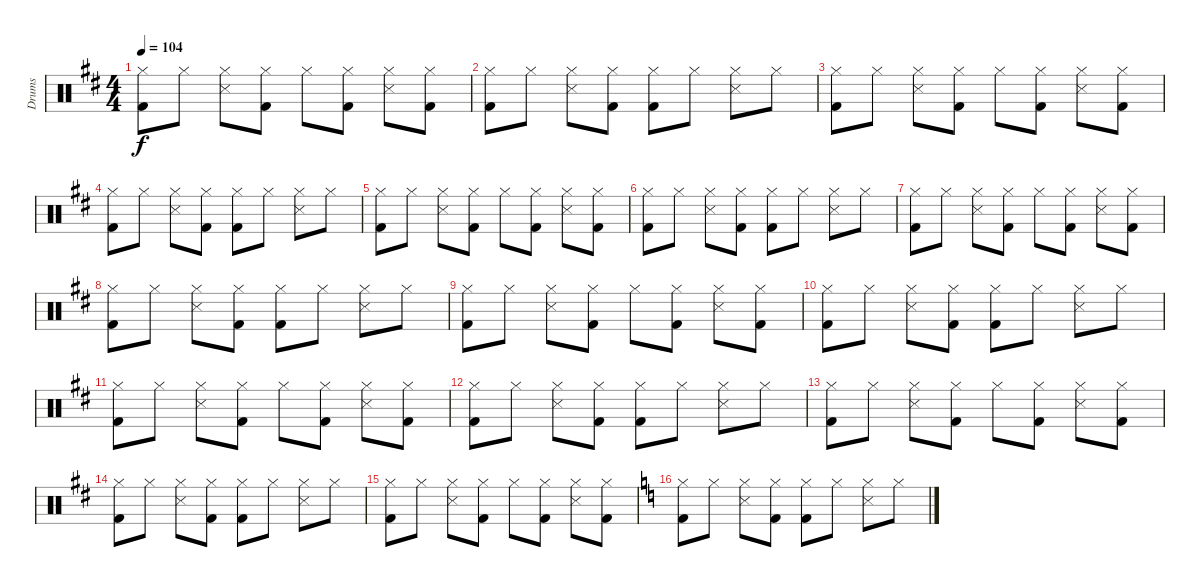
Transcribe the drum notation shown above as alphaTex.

\track ("Drums" "Drums") {instrument percussion}
\staff {score}
\articulation defaults
\ts (4 4)
\tempo 104
\clef neutral
\ks d
("Hi-Hat (closed)" "Kick (hit) 2").8{dy f} "Hi-Hat (closed)".8 ("Hi-Hat (closed)" "Snare (side stick) 3").8 ("Hi-Hat (closed)" "Kick (hit) 2").8 "Hi-Hat (closed)".8 ("Hi-Hat (closed)" "Kick (hit) 2").8 ("Hi-Hat (closed)" "Snare (side stick) 3").8 ("Hi-Hat (closed)" "Kick (hit) 2").8 |
("Hi-Hat (closed)" "Kick (hit) 2").8 "Hi-Hat (closed)".8 ("Hi-Hat (closed)" "Snare (side stick) 3").8 ("Hi-Hat (closed)" "Kick (hit) 2").8 ("Hi-Hat (closed)" "Kick (hit) 2").8 "Hi-Hat (closed)".8 ("Hi-Hat (closed)" "Snare (side stick) 3").8 "Hi-Hat (closed)".8 |
("Hi-Hat (closed)" "Kick (hit) 2").8 "Hi-Hat (closed)".8 ("Hi-Hat (closed)" "Snare (side stick) 3").8 ("Hi-Hat (closed)" "Kick (hit) 2").8 "Hi-Hat (closed)".8 ("Hi-Hat (closed)" "Kick (hit) 2").8 ("Hi-Hat (closed)" "Snare (side stick) 3").8 ("Hi-Hat (closed)" "Kick (hit) 2").8 |
("Hi-Hat (closed)" "Kick (hit) 2").8 "Hi-Hat (closed)".8 ("Hi-Hat (closed)" "Snare (side stick) 3").8 ("Hi-Hat (closed)" "Kick (hit) 2").8 ("Hi-Hat (closed)" "Kick (hit) 2").8 "Hi-Hat (closed)".8 ("Hi-Hat (closed)" "Snare (side stick) 3").8 "Hi-Hat (closed)".8 |
("Hi-Hat (closed)" "Kick (hit) 2").8 "Hi-Hat (closed)".8 ("Hi-Hat (closed)" "Snare (side stick) 3").8 ("Hi-Hat (closed)" "Kick (hit) 2").8 "Hi-Hat (closed)".8 ("Hi-Hat (closed)" "Kick (hit) 2").8 ("Hi-Hat (closed)" "Snare (side stick) 3").8 ("Hi-Hat (closed)" "Kick (hit) 2").8 |
("Hi-Hat (closed)" "Kick (hit) 2").8 "Hi-Hat (closed)".8 ("Hi-Hat (closed)" "Snare (side stick) 3").8 ("Hi-Hat (closed)" "Kick (hit) 2").8 ("Hi-Hat (closed)" "Kick (hit) 2").8 "Hi-Hat (closed)".8 ("Hi-Hat (closed)" "Snare (side stick) 3").8 "Hi-Hat (closed)".8 |
("Hi-Hat (closed)" "Kick (hit) 2").8 "Hi-Hat (closed)".8 ("Hi-Hat (closed)" "Snare (side stick) 3").8 ("Hi-Hat (closed)" "Kick (hit) 2").8 "Hi-Hat (closed)".8 ("Hi-Hat (closed)" "Kick (hit) 2").8 ("Hi-Hat (closed)" "Snare (side stick) 3").8 ("Hi-Hat (closed)" "Kick (hit) 2").8 |
("Hi-Hat (closed)" "Kick (hit) 2").8 "Hi-Hat (closed)".8 ("Hi-Hat (closed)" "Snare (side stick) 3").8 ("Hi-Hat (closed)" "Kick (hit) 2").8 ("Hi-Hat (closed)" "Kick (hit) 2").8 "Hi-Hat (closed)".8 ("Hi-Hat (closed)" "Snare (side stick) 3").8 "Hi-Hat (closed)".8 |
("Hi-Hat (closed)" "Kick (hit) 2").8 "Hi-Hat (closed)".8 ("Hi-Hat (closed)" "Snare (side stick) 3").8 ("Hi-Hat (closed)" "Kick (hit) 2").8 "Hi-Hat (closed)".8 ("Hi-Hat (closed)" "Kick (hit) 2").8 ("Hi-Hat (closed)" "Snare (side stick) 3").8 ("Hi-Hat (closed)" "Kick (hit) 2").8 |
("Hi-Hat (closed)" "Kick (hit) 2").8 "Hi-Hat (closed)".8 ("Hi-Hat (closed)" "Snare (side stick) 3").8 ("Hi-Hat (closed)" "Kick (hit) 2").8 ("Hi-Hat (closed)" "Kick (hit) 2").8 "Hi-Hat (closed)".8 ("Hi-Hat (closed)" "Snare (side stick) 3").8 "Hi-Hat (closed)".8 |
("Hi-Hat (closed)" "Kick (hit) 2").8 "Hi-Hat (closed)".8 ("Hi-Hat (closed)" "Snare (side stick) 3").8 ("Hi-Hat (closed)" "Kick (hit) 2").8 "Hi-Hat (closed)".8 ("Hi-Hat (closed)" "Kick (hit) 2").8 ("Hi-Hat (closed)" "Snare (side stick) 3").8 ("Hi-Hat (closed)" "Kick (hit) 2").8 |
("Hi-Hat (closed)" "Kick (hit) 2").8 "Hi-Hat (closed)".8 ("Hi-Hat (closed)" "Snare (side stick) 3").8 ("Hi-Hat (closed)" "Kick (hit) 2").8 ("Hi-Hat (closed)" "Kick (hit) 2").8 "Hi-Hat (closed)".8 ("Hi-Hat (closed)" "Snare (side stick) 3").8 "Hi-Hat (closed)".8 |
("Hi-Hat (closed)" "Kick (hit) 2").8 "Hi-Hat (closed)".8 ("Hi-Hat (closed)" "Snare (side stick) 3").8 ("Hi-Hat (closed)" "Kick (hit) 2").8 "Hi-Hat (closed)".8 ("Hi-Hat (closed)" "Kick (hit) 2").8 ("Hi-Hat (closed)" "Snare (side stick) 3").8 ("Hi-Hat (closed)" "Kick (hit) 2").8 |
("Hi-Hat (closed)" "Kick (hit) 2").8 "Hi-Hat (closed)".8 ("Hi-Hat (closed)" "Snare (side stick) 3").8 ("Hi-Hat (closed)" "Kick (hit) 2").8 ("Hi-Hat (closed)" "Kick (hit) 2").8 "Hi-Hat (closed)".8 ("Hi-Hat (closed)" "Snare (side stick) 3").8 "Hi-Hat (closed)".8 |
("Hi-Hat (closed)" "Kick (hit) 2").8 "Hi-Hat (closed)".8 ("Hi-Hat (closed)" "Snare (side stick) 3").8 ("Hi-Hat (closed)" "Kick (hit) 2").8 "Hi-Hat (closed)".8 ("Hi-Hat (closed)" "Kick (hit) 2").8 ("Hi-Hat (closed)" "Snare (side stick) 3").8 ("Hi-Hat (closed)" "Kick (hit) 2").8 |
\ks c
("Hi-Hat (closed)" "Kick (hit) 2").8 "Hi-Hat (closed)".8 ("Hi-Hat (closed)" "Snare (side stick) 3").8 ("Hi-Hat (closed)" "Kick (hit) 2").8 ("Hi-Hat (closed)" "Kick (hit) 2").8 "Hi-Hat (closed)".8 ("Hi-Hat (closed)" "Snare (side stick) 3").8 "Hi-Hat (closed)".8
